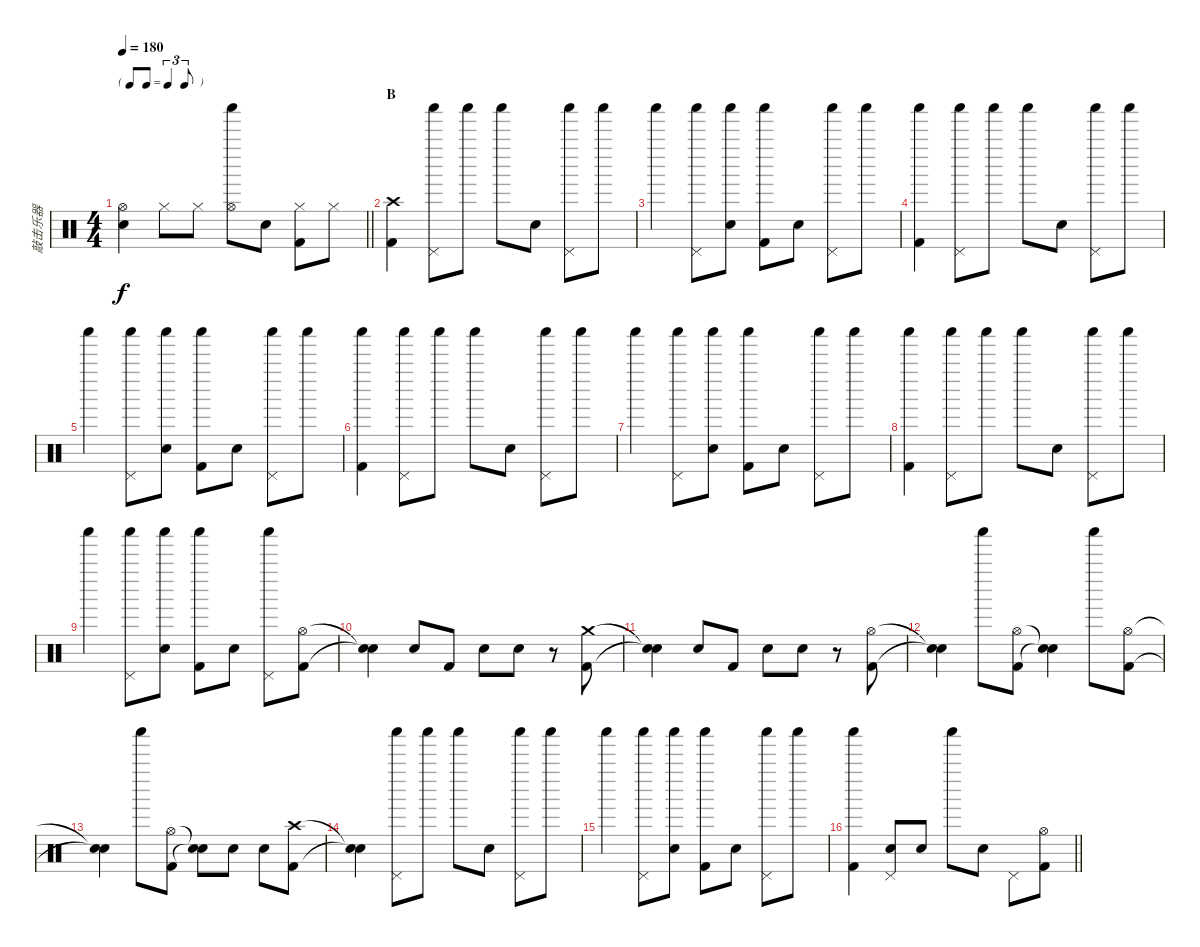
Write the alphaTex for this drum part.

\track ("敲击乐器" "敲击乐器") {instrument percussion}
\staff {score}
\articulation defaults
\ts (4 4)
\tf triplet8th
\tempo 180
\clef neutral
\barLineRight lightlight
\ks c
("Hi-Hat (open)"{t} "Snare (hit)"{t}).4{dy f} "Hi-Hat (closed)".8 "Hi-Hat (closed)".8 ("Hi-Hat (open)" "Shaker (hit)").8 "Electric Snare (hit)".8 ("Hi-Hat (closed)" "Kick (hit) 2").8 "Hi-Hat (closed)".8 |
\section ("" "B")
("Crash high (hit)" "Kick (hit) 2").4 ("Shaker (hit)" "Pedal Hi-Hat (hit)").8 "Shaker (hit)".8 "Shaker (hit)".8 "Electric Snare (hit)".8 ("Shaker (hit)" "Pedal Hi-Hat (hit)").8 "Shaker (hit)".8 |
"Shaker (hit)".4 ("Shaker (hit)" "Pedal Hi-Hat (hit)").8 ("Shaker (hit)" "Electric Snare (hit)").8 ("Shaker (hit)" "Kick (hit) 2").8 "Electric Snare (hit)".8 ("Shaker (hit)" "Pedal Hi-Hat (hit)").8 "Shaker (hit)".8 |
("Shaker (hit)" "Kick (hit) 2").4 ("Shaker (hit)" "Pedal Hi-Hat (hit)").8 "Shaker (hit)".8 "Shaker (hit)".8 "Electric Snare (hit)".8 ("Shaker (hit)" "Pedal Hi-Hat (hit)").8 "Shaker (hit)".8 |
"Shaker (hit)".4 ("Shaker (hit)" "Pedal Hi-Hat (hit)").8 ("Shaker (hit)" "Electric Snare (hit)").8 ("Shaker (hit)" "Kick (hit) 2").8 "Electric Snare (hit)".8 ("Shaker (hit)" "Pedal Hi-Hat (hit)").8 "Shaker (hit)".8 |
("Shaker (hit)" "Kick (hit) 2").4 ("Shaker (hit)" "Pedal Hi-Hat (hit)").8 "Shaker (hit)".8 "Shaker (hit)".8 "Electric Snare (hit)".8 ("Shaker (hit)" "Pedal Hi-Hat (hit)").8 "Shaker (hit)".8 |
"Shaker (hit)".4 ("Shaker (hit)" "Pedal Hi-Hat (hit)").8 ("Shaker (hit)" "Electric Snare (hit)").8 ("Shaker (hit)" "Kick (hit) 2").8 "Electric Snare (hit)".8 ("Shaker (hit)" "Pedal Hi-Hat (hit)").8 "Shaker (hit)".8 |
("Shaker (hit)" "Kick (hit) 2").4 ("Shaker (hit)" "Pedal Hi-Hat (hit)").8 "Shaker (hit)".8 "Shaker (hit)".8 "Electric Snare (hit)".8 ("Shaker (hit)" "Pedal Hi-Hat (hit)").8 "Shaker (hit)".8 |
"Shaker (hit)".4 ("Shaker (hit)" "Pedal Hi-Hat (hit)").8 ("Shaker (hit)" "Electric Snare (hit)").8 ("Shaker (hit)" "Kick (hit) 2").8 "Electric Snare (hit)".8 ("Shaker (hit)" "Pedal Hi-Hat (hit)").8 ("Hi-Hat (open)" "Kick (hit) 2").8 |
("Snare (hit)"{t} "Snare (hit)"{t}).4 "Electric Snare (hit)".8 "Kick (hit) 2".8 "Electric Snare (hit)".8 "Electric Snare (hit)".8 r.8 ("Crash medium (hit)" "Kick (hit) 2").8 |
("Snare (hit)"{t} "Snare (hit)"{t}).4 "Electric Snare (hit)".8 "Kick (hit) 2".8 "Electric Snare (hit)".8 "Electric Snare (hit)".8 r.8 ("Hi-Hat (open)" "Kick (hit) 2").8 |
("Snare (hit)"{t} "Snare (hit)"{t}).4 "Shaker (hit)".8 ("Hi-Hat (open)" "Kick (hit) 2").8 ("Snare (hit)"{t} "Snare (hit)"{t}).4 "Shaker (hit)".8 ("Hi-Hat (open)" "Kick (hit) 2").8 |
("Snare (hit)"{t} "Snare (hit)"{t}).4 "Shaker (hit)".8 ("Hi-Hat (open)" "Kick (hit) 2").8 ("Snare (hit)"{t} "Snare (hit)"{t}).8 "Electric Snare (hit)".8 "Electric Snare (hit)".8 ("Crash high (hit)" "Kick (hit) 2").8 |
("Snare (hit)"{t} "Snare (hit)"{t}).4 ("Shaker (hit)" "Pedal Hi-Hat (hit)").8 "Shaker (hit)".8 "Shaker (hit)".8 "Electric Snare (hit)".8 ("Shaker (hit)" "Pedal Hi-Hat (hit)").8 "Shaker (hit)".8 |
"Shaker (hit)".4 ("Shaker (hit)" "Pedal Hi-Hat (hit)").8 ("Shaker (hit)" "Electric Snare (hit)").8 ("Shaker (hit)" "Kick (hit) 2").8 "Electric Snare (hit)".8 ("Shaker (hit)" "Pedal Hi-Hat (hit)").8 "Shaker (hit)".8 |
\barLineRight lightlight
("Shaker (hit)" "Kick (hit) 2").4 ("Pedal Hi-Hat (hit)" "Electric Snare (hit)").8 "Electric Snare (hit)".8 "Shaker (hit)".8 "Electric Snare (hit)".8 "Pedal Hi-Hat (hit)".8 ("Hi-Hat (open)" "Kick (hit) 2").8
